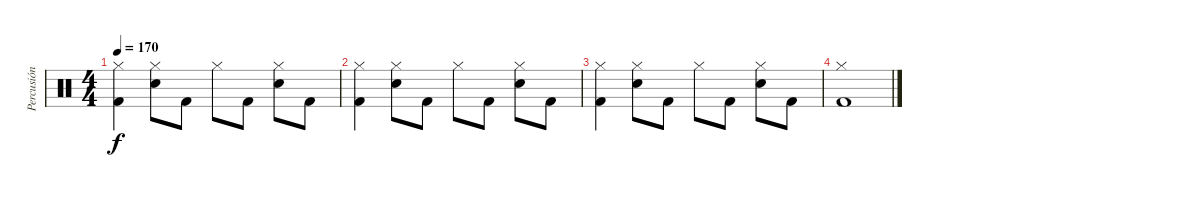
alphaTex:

\track ("Percusión" "Percusión") {instrument percussion}
\staff {score}
\articulation defaults
\ts (4 4)
\tempo 170
\clef neutral
\ks c
("Hi-Hat (closed)" "Kick (hit) 2").4{dy f} ("Hi-Hat (closed)" "Snare (hit) 2").8 "Kick (hit) 2".8 "Hi-Hat (closed)".8 "Kick (hit) 2".8 ("Hi-Hat (closed)" "Snare (hit) 2").8 "Kick (hit) 2".8 |
("Hi-Hat (closed)" "Kick (hit) 2").4 ("Hi-Hat (closed)" "Snare (hit) 2").8 "Kick (hit) 2".8 "Hi-Hat (closed)".8 "Kick (hit) 2".8 ("Hi-Hat (closed)" "Snare (hit) 2").8 "Kick (hit) 2".8 |
("Hi-Hat (closed)" "Kick (hit) 2").4 ("Hi-Hat (closed)" "Snare (hit) 2").8 "Kick (hit) 2".8 "Hi-Hat (closed)".8 "Kick (hit) 2".8 ("Hi-Hat (closed)" "Snare (hit) 2").8 "Kick (hit) 2".8 |
("Hi-Hat (closed)" "Kick (hit) 2").1
